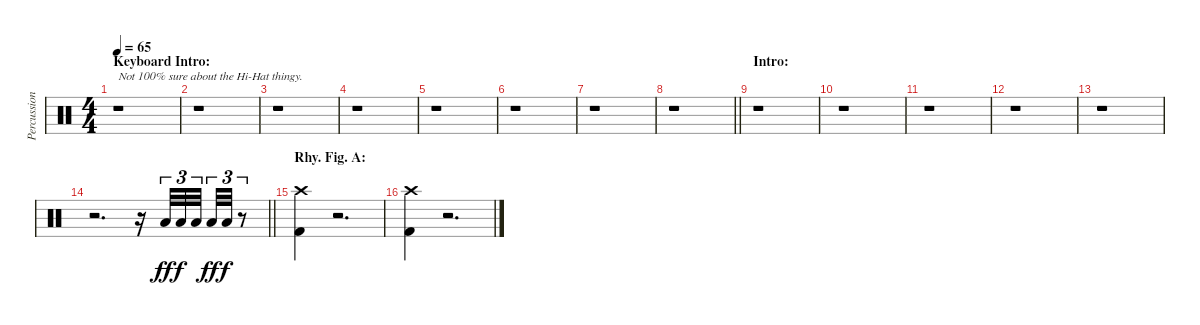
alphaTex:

\track ("Percussion" "Percussion") {instrument percussion}
\staff {score}
\articulation defaults
\ts (4 4)
\section ("" "Keyboard Intro:")
\tempo 65
\clef neutral
\ks c
r.1{txt "Not 100% sure about the Hi-Hat thingy." dy ff} |
r.1 |
r.1 |
r.1 |
r.1 |
r.1 |
r.1 |
\barLineRight lightlight
r.1 |
\section ("" "Intro:")
r.1 |
r.1 |
r.1 |
r.1 |
r.1 |
\barLineRight lightlight
r.2{d} r.16 "Low Tom (hit)".32{tu (3 2)} "Low Tom (hit)".32{tu (3 2) dy f} "Low Tom (hit)".32{tu (3 2)} "Low Tom (hit)".32{tu (3 2) dy ff} "Low Tom (hit)".32{tu (3 2) dy f} r.8{tu (3 2)} |
\section ("" "Rhy. Fig. A:")
("Crash high (hit)" "Kick (hit) 2").4 r.2{d} |
("Crash high (hit)" "Kick (hit) 2").4 r.2{d}
